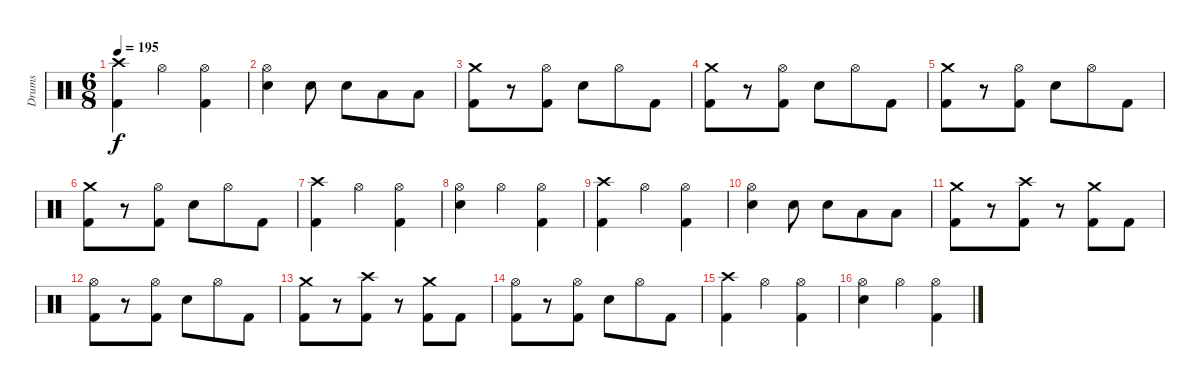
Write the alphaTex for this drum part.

\track ("Drums" "Drums") {instrument percussion}
\staff {score}
\articulation defaults
\ts (6 8)
\tempo 195
\clef neutral
\ks c
("Crash high (hit)" "Kick (hit) 2").4{dy f} "Hi-Hat (open)".4 ("Hi-Hat (open)" "Kick (hit) 2").4 |
("Hi-Hat (open)" "Electric Snare (hit)").4 "Electric Snare (hit)".8 "Electric Snare (hit)".8 "Low Tom (hit)".8 "Low Tom (hit)".8 |
("Crash medium (hit)" "Kick (hit) 2").8 r.8 ("Hi-Hat (open)" "Kick (hit) 2").8 "Electric Snare (hit)".8 "Hi-Hat (open)".8 "Kick (hit) 2".8 |
("Crash medium (hit)" "Kick (hit) 2").8 r.8 ("Hi-Hat (open)" "Kick (hit) 2").8 "Electric Snare (hit)".8 "Hi-Hat (open)".8 "Kick (hit) 2".8 |
("Crash medium (hit)" "Kick (hit) 2").8 r.8 ("Hi-Hat (open)" "Kick (hit) 2").8 "Electric Snare (hit)".8 "Hi-Hat (open)".8 "Kick (hit) 2".8 |
("Crash medium (hit)" "Kick (hit) 2").8 r.8 ("Hi-Hat (open)" "Kick (hit) 2").8 "Electric Snare (hit)".8 "Hi-Hat (open)".8 "Kick (hit) 2".8 |
("Crash high (hit)" "Kick (hit) 2").4 "Hi-Hat (open)".4 ("Hi-Hat (open)" "Kick (hit) 2").4 |
("Hi-Hat (open)" "Electric Snare (hit)").4 "Hi-Hat (open)".4 ("Hi-Hat (open)" "Kick (hit) 2").4 |
("Crash high (hit)" "Kick (hit) 2").4 "Hi-Hat (open)".4 ("Hi-Hat (open)" "Kick (hit) 2").4 |
("Hi-Hat (open)" "Electric Snare (hit)").4 "Electric Snare (hit)".8 "Electric Snare (hit)".8 "Low Tom (hit)".8 "Low Tom (hit)".8 |
("Crash medium (hit)" "Kick (hit) 2").8 r.8 ("Crash high (hit)" "Kick (hit) 2").8 r.8 ("Crash medium (hit)" "Kick (hit) 2").8 "Kick (hit) 2".8 |
("Hi-Hat (open)" "Kick (hit) 2").8 r.8 ("Hi-Hat (open)" "Kick (hit) 2").8 "Electric Snare (hit)".8 "Hi-Hat (open)".8 "Kick (hit) 2".8 |
("Crash medium (hit)" "Kick (hit) 2").8 r.8 ("Crash high (hit)" "Kick (hit) 2").8 r.8 ("Crash medium (hit)" "Kick (hit) 2").8 "Kick (hit) 2".8 |
("Hi-Hat (open)" "Kick (hit) 2").8 r.8 ("Hi-Hat (open)" "Kick (hit) 2").8 "Electric Snare (hit)".8 "Hi-Hat (open)".8 "Kick (hit) 2".8 |
("Crash high (hit)" "Kick (hit) 2").4 "Hi-Hat (open)".4 ("Hi-Hat (open)" "Kick (hit) 2").4 |
("Hi-Hat (open)" "Electric Snare (hit)").4 "Hi-Hat (open)".4 ("Hi-Hat (open)" "Kick (hit) 2").4
